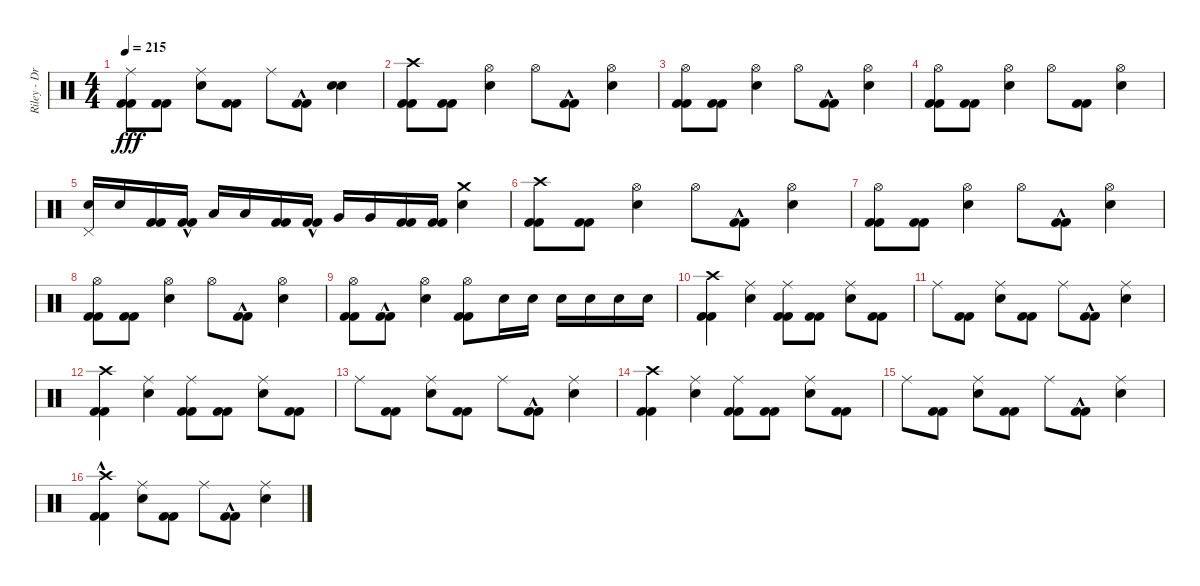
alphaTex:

\track ("Riley - Drums" "Riley - Dr") {instrument percussion}
\staff {score}
\articulation defaults
\ts (4 4)
\tempo 215
\clef neutral
\ks c
("Kick (hit) 2" "Kick (hit) 2" "Ride (middle)").8{dy fff} ("Kick (hit) 2" "Kick (hit) 2").8 ("Electric Snare (hit)" "Ride (middle)").8 ("Kick (hit) 2" "Kick (hit) 2").8 "Ride (middle)".8 ("Kick (hit) 2"{hac} "Kick (hit) 2"{hac}).8 ("Electric Snare (hit)" "Electric Snare (hit)").4 |
("Kick (hit) 2" "Kick (hit) 2" "Crash high (hit)").8 ("Kick (hit) 2" "Kick (hit) 2").8 ("Electric Snare (hit)" "Hi-Hat (open)").4 "Hi-Hat (open)".8 ("Kick (hit) 2"{hac} "Kick (hit) 2"{hac}).8 ("Electric Snare (hit)" "Hi-Hat (open)").4 |
("Kick (hit) 2" "Kick (hit) 2" "Hi-Hat (open)").8 ("Kick (hit) 2" "Kick (hit) 2").8 ("Electric Snare (hit)" "Hi-Hat (open)").4 "Hi-Hat (open)".8 ("Kick (hit) 2"{hac} "Kick (hit) 2"{hac}).8 ("Electric Snare (hit)" "Hi-Hat (open)").4 |
("Kick (hit) 2" "Kick (hit) 2" "Hi-Hat (open)").8 ("Kick (hit) 2" "Kick (hit) 2").8 ("Electric Snare (hit)" "Hi-Hat (open)").4 "Hi-Hat (open)".8 ("Kick (hit) 2" "Kick (hit) 2").8 ("Electric Snare (hit)" "Hi-Hat (open)").4 |
("Electric Snare (hit)" "Pedal Hi-Hat (hit)").16 "Electric Snare (hit)".16 ("Kick (hit) 2" "Kick (hit) 2").16 ("Kick (hit) 2"{hac} "Kick (hit) 2"{hac}).16 "Low Tom (hit)".16 "Low Tom (hit)".16 ("Kick (hit) 2" "Kick (hit) 2").16 ("Kick (hit) 2"{hac} "Kick (hit) 2"{hac}).16 "Very Low Tom (hit)".16 "Very Low Tom (hit)".16 ("Kick (hit) 2" "Kick (hit) 2").16 ("Kick (hit) 2" "Kick (hit) 2").16 ("Electric Snare (hit)" "Crash medium (hit)").4 |
("Kick (hit) 2" "Kick (hit) 2" "Crash high (hit)").8 ("Kick (hit) 2" "Kick (hit) 2").8 ("Electric Snare (hit)" "Hi-Hat (open)").4 "Hi-Hat (open)".8 ("Kick (hit) 2"{hac} "Kick (hit) 2"{hac}).8 ("Electric Snare (hit)" "Hi-Hat (open)").4 |
("Kick (hit) 2" "Kick (hit) 2" "Hi-Hat (open)").8 ("Kick (hit) 2" "Kick (hit) 2").8 ("Electric Snare (hit)" "Hi-Hat (open)").4 "Hi-Hat (open)".8 ("Kick (hit) 2"{hac} "Kick (hit) 2"{hac}).8 ("Electric Snare (hit)" "Hi-Hat (open)").4 |
("Kick (hit) 2" "Kick (hit) 2" "Hi-Hat (open)").8 ("Kick (hit) 2" "Kick (hit) 2").8 ("Electric Snare (hit)" "Hi-Hat (open)").4 "Hi-Hat (open)".8 ("Kick (hit) 2"{hac} "Kick (hit) 2"{hac}).8 ("Electric Snare (hit)" "Hi-Hat (open)").4 |
("Kick (hit) 2" "Kick (hit) 2" "Hi-Hat (open)").8 ("Kick (hit) 2"{hac} "Kick (hit) 2"{hac}).8 ("Electric Snare (hit)" "Hi-Hat (open)").4 ("Kick (hit) 2" "Kick (hit) 2" "Hi-Hat (open)").8 "Electric Snare (hit)".16 "Electric Snare (hit)".16 "Electric Snare (hit)".16 "Electric Snare (hit)".16 "Electric Snare (hit)".16 "Electric Snare (hit)".16 |
("Kick (hit) 2" "Kick (hit) 2" "Crash high (hit)").4 ("Electric Snare (hit)" "Ride (middle)").4 ("Kick (hit) 2" "Kick (hit) 2" "Ride (middle)").8 ("Kick (hit) 2" "Kick (hit) 2").8 ("Electric Snare (hit)" "Ride (middle)").8 ("Kick (hit) 2" "Kick (hit) 2").8 |
"Ride (middle)".8 ("Kick (hit) 2" "Kick (hit) 2").8 ("Electric Snare (hit)" "Ride (middle)").8 ("Kick (hit) 2" "Kick (hit) 2").8 "Ride (middle)".8 ("Kick (hit) 2"{hac} "Kick (hit) 2"{hac}).8 ("Electric Snare (hit)" "Ride (middle)").4 |
("Kick (hit) 2" "Kick (hit) 2" "Crash high (hit)").4 ("Electric Snare (hit)" "Ride (middle)").4 ("Kick (hit) 2" "Kick (hit) 2" "Ride (middle)").8 ("Kick (hit) 2" "Kick (hit) 2").8 ("Electric Snare (hit)" "Ride (middle)").8 ("Kick (hit) 2" "Kick (hit) 2").8 |
"Ride (middle)".8 ("Kick (hit) 2" "Kick (hit) 2").8 ("Electric Snare (hit)" "Ride (middle)").8 ("Kick (hit) 2" "Kick (hit) 2").8 "Ride (middle)".8 ("Kick (hit) 2"{hac} "Kick (hit) 2"{hac}).8 ("Electric Snare (hit)" "Ride (middle)").4 |
("Kick (hit) 2" "Kick (hit) 2" "Crash high (hit)").4 ("Electric Snare (hit)" "Ride (middle)").4 ("Kick (hit) 2" "Kick (hit) 2" "Ride (middle)").8 ("Kick (hit) 2" "Kick (hit) 2").8 ("Electric Snare (hit)" "Ride (middle)").8 ("Kick (hit) 2" "Kick (hit) 2").8 |
"Ride (middle)".8 ("Kick (hit) 2" "Kick (hit) 2").8 ("Electric Snare (hit)" "Ride (middle)").8 ("Kick (hit) 2" "Kick (hit) 2").8 "Ride (middle)".8 ("Kick (hit) 2"{hac} "Kick (hit) 2"{hac}).8 ("Electric Snare (hit)" "Ride (middle)").4 |
("Kick (hit) 2"{hac} "Kick (hit) 2"{hac} "Crash high (hit)").4 ("Electric Snare (hit)" "Ride (middle)").8 ("Kick (hit) 2" "Kick (hit) 2").8 "Ride (middle)".8 ("Kick (hit) 2"{hac} "Kick (hit) 2"{hac}).8 ("Electric Snare (hit)" "Ride (middle)").4
